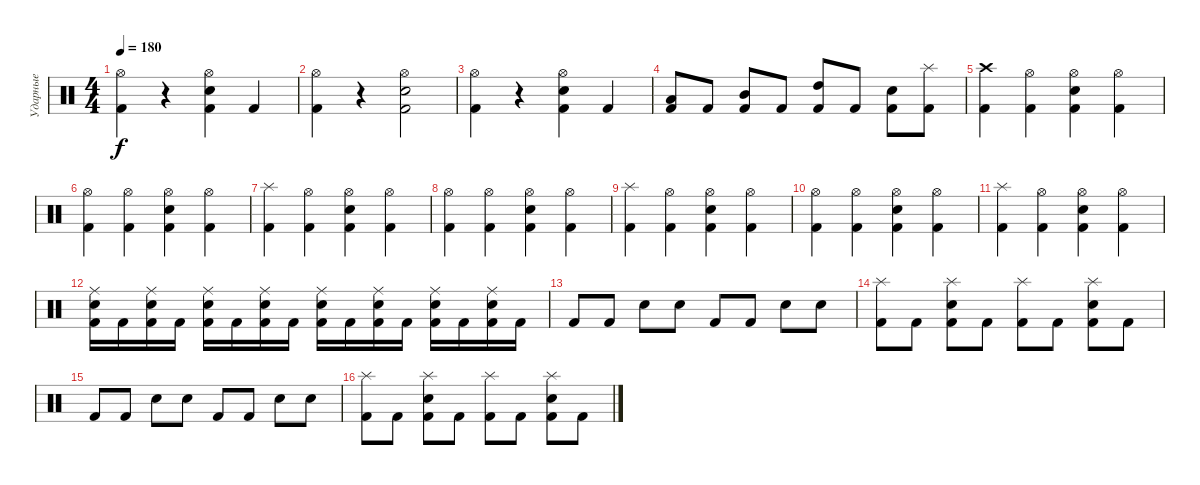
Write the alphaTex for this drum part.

\track ("Ударные" "Ударные") {instrument percussion}
\staff {score}
\articulation defaults
\ts (4 4)
\tempo 180
\clef neutral
\ks c
("Hi-Hat (open)" "Kick (hit) 2").4{dy f} r.4 ("Hi-Hat (open)" "Kick (hit) 2" "Electric Snare (hit)").4 "Kick (hit) 2".4 |
("Hi-Hat (open)" "Kick (hit) 2").4 r.4 ("Hi-Hat (open)" "Kick (hit) 2" "Electric Snare (hit)").2 |
("Hi-Hat (open)" "Kick (hit) 2").4 r.4 ("Hi-Hat (open)" "Kick (hit) 2" "Electric Snare (hit)").4 "Kick (hit) 2".4 |
("Low Tom (hit)" "Kick (hit) 2").8 "Kick (hit) 2".8 ("Mid Tom (hit)" "Kick (hit) 2").8 "Kick (hit) 2".8 ("High Tom (hit)" "Kick (hit) 2").8 "Kick (hit) 2".8 ("Electric Snare (hit)" "Kick (hit) 2").8 ("Splash (hit)" "Kick (hit) 2").8 |
("Crash high (hit)" "Kick (hit) 2").4 ("Hi-Hat (open)" "Kick (hit) 2").4 ("Hi-Hat (open)" "Kick (hit) 2" "Electric Snare (hit)").4 ("Hi-Hat (open)" "Kick (hit) 2").4 |
("Hi-Hat (open)" "Kick (hit) 2").4 ("Hi-Hat (open)" "Kick (hit) 2").4 ("Hi-Hat (open)" "Kick (hit) 2" "Electric Snare (hit)").4 ("Hi-Hat (open)" "Kick (hit) 2").4 |
("Splash (hit)" "Kick (hit) 2").4 ("Hi-Hat (open)" "Kick (hit) 2").4 ("Hi-Hat (open)" "Kick (hit) 2" "Electric Snare (hit)").4 ("Hi-Hat (open)" "Kick (hit) 2").4 |
("Hi-Hat (open)" "Kick (hit) 2").4 ("Hi-Hat (open)" "Kick (hit) 2").4 ("Hi-Hat (open)" "Kick (hit) 2" "Electric Snare (hit)").4 ("Hi-Hat (open)" "Kick (hit) 2").4 |
("Splash (hit)" "Kick (hit) 2").4 ("Hi-Hat (open)" "Kick (hit) 2").4 ("Hi-Hat (open)" "Kick (hit) 2" "Electric Snare (hit)").4 ("Hi-Hat (open)" "Kick (hit) 2").4 |
("Hi-Hat (open)" "Kick (hit) 2").4 ("Hi-Hat (open)" "Kick (hit) 2").4 ("Hi-Hat (open)" "Kick (hit) 2" "Electric Snare (hit)").4 ("Hi-Hat (open)" "Kick (hit) 2").4 |
("Splash (hit)" "Kick (hit) 2").4 ("Hi-Hat (open)" "Kick (hit) 2").4 ("Hi-Hat (open)" "Kick (hit) 2" "Electric Snare (hit)").4 ("Hi-Hat (open)" "Kick (hit) 2").4 |
("Ride (middle)" "Electric Snare (hit)" "Kick (hit) 2").16 "Kick (hit) 2".16 ("Ride (middle)" "Electric Snare (hit)" "Kick (hit) 2").16 "Kick (hit) 2".16 ("Ride (middle)" "Electric Snare (hit)" "Kick (hit) 2").16 "Kick (hit) 2".16 ("Ride (middle)" "Electric Snare (hit)" "Kick (hit) 2").16 "Kick (hit) 2".16 ("Ride (middle)" "Electric Snare (hit)" "Kick (hit) 2").16 "Kick (hit) 2".16 ("Ride (middle)" "Electric Snare (hit)" "Kick (hit) 2").16 "Kick (hit) 2".16 ("Ride (middle)" "Electric Snare (hit)" "Kick (hit) 2").16 "Kick (hit) 2".16 ("Ride (middle)" "Electric Snare (hit)" "Kick (hit) 2").16 "Kick (hit) 2".16 |
"Kick (hit) 2".8 "Kick (hit) 2".8 "Electric Snare (hit)".8 "Electric Snare (hit)".8 "Kick (hit) 2".8 "Kick (hit) 2".8 "Electric Snare (hit)".8 "Electric Snare (hit)".8 |
("Splash (hit)" "Kick (hit) 2").8 "Kick (hit) 2".8 ("Splash (hit)" "Kick (hit) 2" "Electric Snare (hit)").8 "Kick (hit) 2".8 ("Splash (hit)" "Kick (hit) 2").8 "Kick (hit) 2".8 ("Splash (hit)" "Kick (hit) 2" "Electric Snare (hit)").8 "Kick (hit) 2".8 |
"Kick (hit) 2".8 "Kick (hit) 2".8 "Electric Snare (hit)".8 "Electric Snare (hit)".8 "Kick (hit) 2".8 "Kick (hit) 2".8 "Electric Snare (hit)".8 "Electric Snare (hit)".8 |
("Splash (hit)" "Kick (hit) 2").8 "Kick (hit) 2".8 ("Splash (hit)" "Kick (hit) 2" "Electric Snare (hit)").8 "Kick (hit) 2".8 ("Splash (hit)" "Kick (hit) 2").8 "Kick (hit) 2".8 ("Splash (hit)" "Kick (hit) 2" "Electric Snare (hit)").8 "Kick (hit) 2".8
